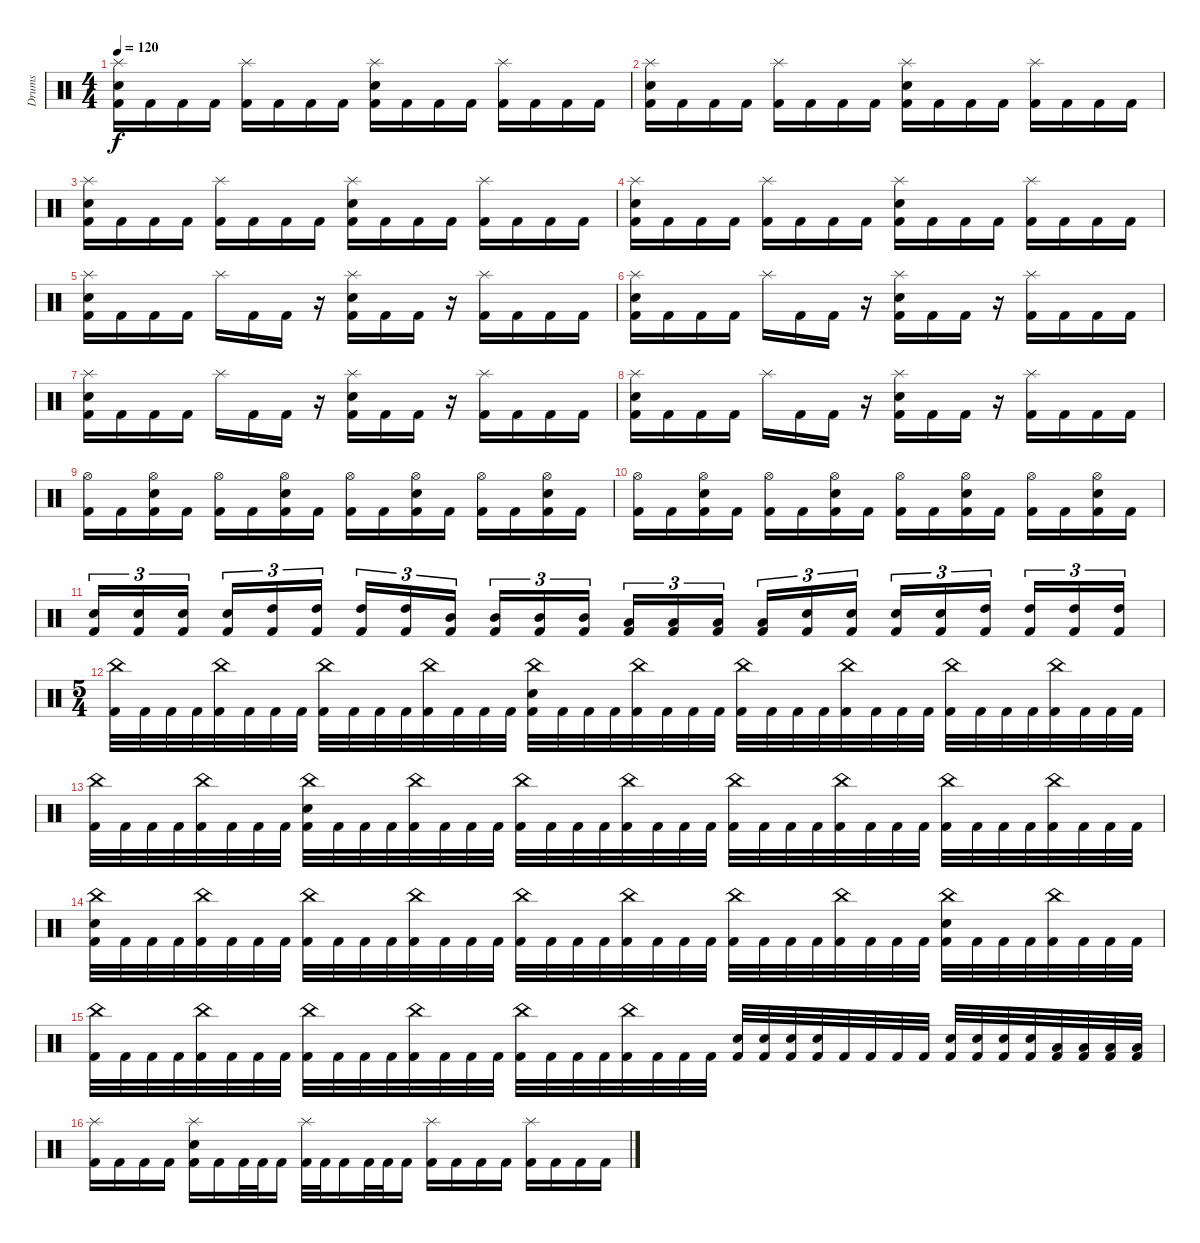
\track ("Drums" "Drums") {instrument percussion}
\staff {score}
\articulation defaults
\ts (4 4)
\tempo 120
\clef neutral
\ks c
("Splash (hit)" "Electric Snare (hit)" "Kick (hit) 2").16{dy f} "Kick (hit) 2".16 "Kick (hit) 2".16 "Kick (hit) 2".16 ("Splash (hit)" "Kick (hit) 2").16 "Kick (hit) 2".16 "Kick (hit) 2".16 "Kick (hit) 2".16 ("Splash (hit)" "Electric Snare (hit)" "Kick (hit) 2").16 "Kick (hit) 2".16 "Kick (hit) 2".16 "Kick (hit) 2".16 ("Splash (hit)" "Kick (hit) 2").16 "Kick (hit) 2".16 "Kick (hit) 2".16 "Kick (hit) 2".16 |
("Splash (hit)" "Electric Snare (hit)" "Kick (hit) 2").16 "Kick (hit) 2".16 "Kick (hit) 2".16 "Kick (hit) 2".16 ("Splash (hit)" "Kick (hit) 2").16 "Kick (hit) 2".16 "Kick (hit) 2".16 "Kick (hit) 2".16 ("Splash (hit)" "Electric Snare (hit)" "Kick (hit) 2").16 "Kick (hit) 2".16 "Kick (hit) 2".16 "Kick (hit) 2".16 ("Splash (hit)" "Kick (hit) 2").16 "Kick (hit) 2".16 "Kick (hit) 2".16 "Kick (hit) 2".16 |
("Splash (hit)" "Electric Snare (hit)" "Kick (hit) 2").16 "Kick (hit) 2".16 "Kick (hit) 2".16 "Kick (hit) 2".16 ("Splash (hit)" "Kick (hit) 2").16 "Kick (hit) 2".16 "Kick (hit) 2".16 "Kick (hit) 2".16 ("Splash (hit)" "Electric Snare (hit)" "Kick (hit) 2").16 "Kick (hit) 2".16 "Kick (hit) 2".16 "Kick (hit) 2".16 ("Splash (hit)" "Kick (hit) 2").16 "Kick (hit) 2".16 "Kick (hit) 2".16 "Kick (hit) 2".16 |
("Splash (hit)" "Electric Snare (hit)" "Kick (hit) 2").16 "Kick (hit) 2".16 "Kick (hit) 2".16 "Kick (hit) 2".16 ("Splash (hit)" "Kick (hit) 2").16 "Kick (hit) 2".16 "Kick (hit) 2".16 "Kick (hit) 2".16 ("Splash (hit)" "Electric Snare (hit)" "Kick (hit) 2").16 "Kick (hit) 2".16 "Kick (hit) 2".16 "Kick (hit) 2".16 ("Splash (hit)" "Kick (hit) 2").16 "Kick (hit) 2".16 "Kick (hit) 2".16 "Kick (hit) 2".16 |
("Splash (hit)" "Electric Snare (hit)" "Kick (hit) 2").16 "Kick (hit) 2".16 "Kick (hit) 2".16 "Kick (hit) 2".16 "Splash (hit)".16 "Kick (hit) 2".16 "Kick (hit) 2".16 r.16 ("Splash (hit)" "Electric Snare (hit)" "Kick (hit) 2").16 "Kick (hit) 2".16 "Kick (hit) 2".16 r.16 ("Splash (hit)" "Kick (hit) 2").16 "Kick (hit) 2".16 "Kick (hit) 2".16 "Kick (hit) 2".16 |
("Splash (hit)" "Electric Snare (hit)" "Kick (hit) 2").16 "Kick (hit) 2".16 "Kick (hit) 2".16 "Kick (hit) 2".16 "Splash (hit)".16 "Kick (hit) 2".16 "Kick (hit) 2".16 r.16 ("Splash (hit)" "Electric Snare (hit)" "Kick (hit) 2").16 "Kick (hit) 2".16 "Kick (hit) 2".16 r.16 ("Splash (hit)" "Kick (hit) 2").16 "Kick (hit) 2".16 "Kick (hit) 2".16 "Kick (hit) 2".16 |
("Splash (hit)" "Electric Snare (hit)" "Kick (hit) 2").16 "Kick (hit) 2".16 "Kick (hit) 2".16 "Kick (hit) 2".16 "Splash (hit)".16 "Kick (hit) 2".16 "Kick (hit) 2".16 r.16 ("Splash (hit)" "Electric Snare (hit)" "Kick (hit) 2").16 "Kick (hit) 2".16 "Kick (hit) 2".16 r.16 ("Splash (hit)" "Kick (hit) 2").16 "Kick (hit) 2".16 "Kick (hit) 2".16 "Kick (hit) 2".16 |
("Splash (hit)" "Electric Snare (hit)" "Kick (hit) 2").16 "Kick (hit) 2".16 "Kick (hit) 2".16 "Kick (hit) 2".16 "Splash (hit)".16 "Kick (hit) 2".16 "Kick (hit) 2".16 r.16 ("Splash (hit)" "Electric Snare (hit)" "Kick (hit) 2").16 "Kick (hit) 2".16 "Kick (hit) 2".16 r.16 ("Splash (hit)" "Kick (hit) 2").16 "Kick (hit) 2".16 "Kick (hit) 2".16 "Kick (hit) 2".16 |
("Hi-Hat (open)" "Kick (hit) 2").16 "Kick (hit) 2".16 ("Hi-Hat (open)" "Electric Snare (hit)" "Kick (hit) 2").16 "Kick (hit) 2".16 ("Hi-Hat (open)" "Kick (hit) 2").16 "Kick (hit) 2".16 ("Hi-Hat (open)" "Electric Snare (hit)" "Kick (hit) 2").16 "Kick (hit) 2".16 ("Hi-Hat (open)" "Kick (hit) 2").16 "Kick (hit) 2".16 ("Hi-Hat (open)" "Electric Snare (hit)" "Kick (hit) 2").16 "Kick (hit) 2".16 ("Hi-Hat (open)" "Kick (hit) 2").16 "Kick (hit) 2".16 ("Hi-Hat (open)" "Electric Snare (hit)" "Kick (hit) 2").16 "Kick (hit) 2".16 |
("Hi-Hat (open)" "Kick (hit) 2").16 "Kick (hit) 2".16 ("Hi-Hat (open)" "Electric Snare (hit)" "Kick (hit) 2").16 "Kick (hit) 2".16 ("Hi-Hat (open)" "Kick (hit) 2").16 "Kick (hit) 2".16 ("Hi-Hat (open)" "Electric Snare (hit)" "Kick (hit) 2").16 "Kick (hit) 2".16 ("Hi-Hat (open)" "Kick (hit) 2").16 "Kick (hit) 2".16 ("Hi-Hat (open)" "Electric Snare (hit)" "Kick (hit) 2").16 "Kick (hit) 2".16 ("Hi-Hat (open)" "Kick (hit) 2").16 "Kick (hit) 2".16 ("Hi-Hat (open)" "Electric Snare (hit)" "Kick (hit) 2").16 "Kick (hit) 2".16 |
("Electric Snare (hit)" "Kick (hit) 2").16{tu (3 2)} ("Electric Snare (hit)" "Kick (hit) 2").16{tu (3 2)} ("Electric Snare (hit)" "Kick (hit) 2").16{tu (3 2) beam splitsecondary} ("Electric Snare (hit)" "Kick (hit) 2").16{tu (3 2)} ("High Tom (hit)" "Kick (hit) 2").16{tu (3 2)} ("High Tom (hit)" "Kick (hit) 2").16{tu (3 2)} ("High Tom (hit)" "Kick (hit) 2").16{tu (3 2)} ("High Tom (hit)" "Kick (hit) 2").16{tu (3 2)} ("Mid Tom (hit)" "Kick (hit) 2").16{tu (3 2) beam splitsecondary} ("Mid Tom (hit)" "Kick (hit) 2").16{tu (3 2)} ("Mid Tom (hit)" "Kick (hit) 2").16{tu (3 2)} ("Mid Tom (hit)" "Kick (hit) 2").16{tu (3 2)} ("Low Tom (hit)" "Kick (hit) 2").16{tu (3 2)} ("Low Tom (hit)" "Kick (hit) 2").16{tu (3 2)} ("Low Tom (hit)" "Kick (hit) 2").16{tu (3 2) beam splitsecondary} ("Low Tom (hit)" "Kick (hit) 2").16{tu (3 2)} ("Electric Snare (hit)" "Kick (hit) 2").16{tu (3 2)} ("Electric Snare (hit)" "Kick (hit) 2").16{tu (3 2)} ("Electric Snare (hit)" "Kick (hit) 2").16{tu (3 2)} ("Electric Snare (hit)" "Kick (hit) 2").16{tu (3 2)} ("High Tom (hit)" "Kick (hit) 2").16{tu (3 2) beam splitsecondary} ("High Tom (hit)" "Kick (hit) 2").16{tu (3 2)} ("High Tom (hit)" "Kick (hit) 2").16{tu (3 2)} ("High Tom (hit)" "Kick (hit) 2").16{tu (3 2)} |
\ts (5 4)
("China (hit)" "Kick (hit) 2").32 "Kick (hit) 2".32 "Kick (hit) 2".32 "Kick (hit) 2".32 ("China (hit)" "Kick (hit) 2").32 "Kick (hit) 2".32 "Kick (hit) 2".32 "Kick (hit) 2".32 ("China (hit)" "Kick (hit) 2").32 "Kick (hit) 2".32 "Kick (hit) 2".32 "Kick (hit) 2".32 ("China (hit)" "Kick (hit) 2").32 "Kick (hit) 2".32 "Kick (hit) 2".32 "Kick (hit) 2".32 ("China (hit)" "Electric Snare (hit)" "Kick (hit) 2").32 "Kick (hit) 2".32 "Kick (hit) 2".32 "Kick (hit) 2".32 ("China (hit)" "Kick (hit) 2").32 "Kick (hit) 2".32 "Kick (hit) 2".32 "Kick (hit) 2".32 ("China (hit)" "Kick (hit) 2").32 "Kick (hit) 2".32 "Kick (hit) 2".32 "Kick (hit) 2".32 ("China (hit)" "Kick (hit) 2").32 "Kick (hit) 2".32 "Kick (hit) 2".32 "Kick (hit) 2".32 ("China (hit)" "Kick (hit) 2").32 "Kick (hit) 2".32 "Kick (hit) 2".32 "Kick (hit) 2".32 ("China (hit)" "Kick (hit) 2").32 "Kick (hit) 2".32 "Kick (hit) 2".32 "Kick (hit) 2".32 |
("China (hit)" "Kick (hit) 2").32 "Kick (hit) 2".32 "Kick (hit) 2".32 "Kick (hit) 2".32 ("China (hit)" "Kick (hit) 2").32 "Kick (hit) 2".32 "Kick (hit) 2".32 "Kick (hit) 2".32 ("China (hit)" "Electric Snare (hit)" "Kick (hit) 2").32 "Kick (hit) 2".32 "Kick (hit) 2".32 "Kick (hit) 2".32 ("China (hit)" "Kick (hit) 2").32 "Kick (hit) 2".32 "Kick (hit) 2".32 "Kick (hit) 2".32 ("China (hit)" "Kick (hit) 2").32 "Kick (hit) 2".32 "Kick (hit) 2".32 "Kick (hit) 2".32 ("China (hit)" "Kick (hit) 2").32 "Kick (hit) 2".32 "Kick (hit) 2".32 "Kick (hit) 2".32 ("China (hit)" "Kick (hit) 2").32 "Kick (hit) 2".32 "Kick (hit) 2".32 "Kick (hit) 2".32 ("China (hit)" "Kick (hit) 2").32 "Kick (hit) 2".32 "Kick (hit) 2".32 "Kick (hit) 2".32 ("China (hit)" "Kick (hit) 2").32 "Kick (hit) 2".32 "Kick (hit) 2".32 "Kick (hit) 2".32 ("China (hit)" "Kick (hit) 2").32 "Kick (hit) 2".32 "Kick (hit) 2".32 "Kick (hit) 2".32 |
("China (hit)" "Electric Snare (hit)" "Kick (hit) 2").32 "Kick (hit) 2".32 "Kick (hit) 2".32 "Kick (hit) 2".32 ("China (hit)" "Kick (hit) 2").32 "Kick (hit) 2".32 "Kick (hit) 2".32 "Kick (hit) 2".32 ("China (hit)" "Kick (hit) 2").32 "Kick (hit) 2".32 "Kick (hit) 2".32 "Kick (hit) 2".32 ("China (hit)" "Kick (hit) 2").32 "Kick (hit) 2".32 "Kick (hit) 2".32 "Kick (hit) 2".32 ("China (hit)" "Kick (hit) 2").32 "Kick (hit) 2".32 "Kick (hit) 2".32 "Kick (hit) 2".32 ("China (hit)" "Kick (hit) 2").32 "Kick (hit) 2".32 "Kick (hit) 2".32 "Kick (hit) 2".32 ("China (hit)" "Kick (hit) 2").32 "Kick (hit) 2".32 "Kick (hit) 2".32 "Kick (hit) 2".32 ("China (hit)" "Kick (hit) 2").32 "Kick (hit) 2".32 "Kick (hit) 2".32 "Kick (hit) 2".32 ("China (hit)" "Electric Snare (hit)" "Kick (hit) 2").32 "Kick (hit) 2".32 "Kick (hit) 2".32 "Kick (hit) 2".32 ("China (hit)" "Kick (hit) 2").32 "Kick (hit) 2".32 "Kick (hit) 2".32 "Kick (hit) 2".32 |
("China (hit)" "Kick (hit) 2").32 "Kick (hit) 2".32 "Kick (hit) 2".32 "Kick (hit) 2".32 ("China (hit)" "Kick (hit) 2").32 "Kick (hit) 2".32 "Kick (hit) 2".32 "Kick (hit) 2".32 ("China (hit)" "Kick (hit) 2").32 "Kick (hit) 2".32 "Kick (hit) 2".32 "Kick (hit) 2".32 ("China (hit)" "Kick (hit) 2").32 "Kick (hit) 2".32 "Kick (hit) 2".32 "Kick (hit) 2".32 ("China (hit)" "Kick (hit) 2").32 "Kick (hit) 2".32 "Kick (hit) 2".32 "Kick (hit) 2".32 ("China (hit)" "Kick (hit) 2").32 "Kick (hit) 2".32 "Kick (hit) 2".32 "Kick (hit) 2".32 ("Electric Snare (hit)" "Kick (hit) 2").32 ("Electric Snare (hit)" "Kick (hit) 2").32 ("Electric Snare (hit)" "Kick (hit) 2").32 ("Electric Snare (hit)" "Kick (hit) 2").32 "Kick (hit) 2".32 "Kick (hit) 2".32 "Kick (hit) 2".32 "Kick (hit) 2".32 ("Electric Snare (hit)" "Kick (hit) 2").32 ("Electric Snare (hit)" "Kick (hit) 2").32 ("Electric Snare (hit)" "Kick (hit) 2").32 ("Electric Snare (hit)" "Kick (hit) 2").32 ("Low Tom (hit)" "Kick (hit) 2").32 ("Low Tom (hit)" "Kick (hit) 2").32 ("Low Tom (hit)" "Kick (hit) 2").32 ("Low Tom (hit)" "Kick (hit) 2").32 |
("Splash (hit)" "Kick (hit) 2").16 "Kick (hit) 2".16 "Kick (hit) 2".16 "Kick (hit) 2".16 ("Splash (hit)" "Electric Snare (hit)" "Kick (hit) 2").16 "Kick (hit) 2".16 "Kick (hit) 2".32 "Kick (hit) 2".32 "Kick (hit) 2".16 ("Splash (hit)" "Kick (hit) 2").32 "Kick (hit) 2".32 "Kick (hit) 2".16 "Kick (hit) 2".32 "Kick (hit) 2".32 "Kick (hit) 2".16 ("Splash (hit)" "Kick (hit) 2").16 "Kick (hit) 2".16 "Kick (hit) 2".16 "Kick (hit) 2".16 ("Splash (hit)" "Kick (hit) 2").16 "Kick (hit) 2".16 "Kick (hit) 2".16 "Kick (hit) 2".16
